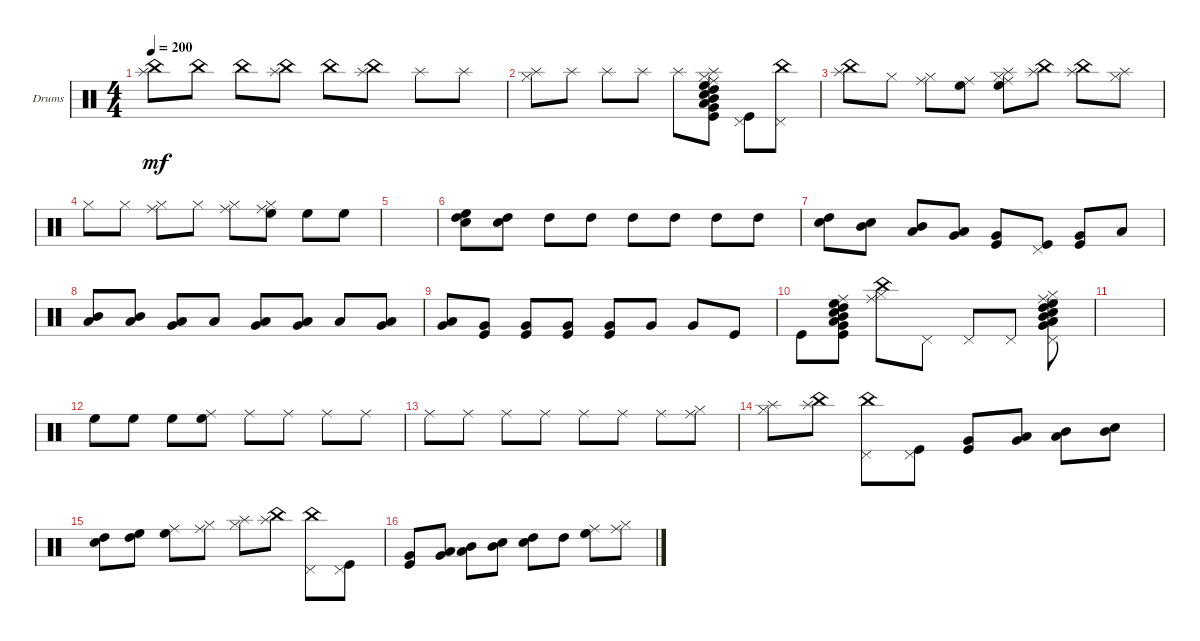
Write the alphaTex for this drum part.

\defaultSystemsLayout 4
\bracketExtendMode groupsimilarinstruments
\firstSystemTrackNameOrientation horizontal
\otherSystemsTrackNameOrientation horizontal
\track ("Drumkit" "Drums") {instrument percussion}
\staff {score}
\articulation defaults
\ts (4 4)
\tempo 200
\clef neutral
\ks c
("Splash (hit)" "China (hit)").8{dy mf} "China (hit)".8 "China (hit)".8 ("China (hit)" "Splash (hit)").8 "China (hit)".8 ("China (hit)" "Splash (hit)").8 "Splash (hit)".8 "Splash (hit)".8 |
("Splash (hit)" "Hi-Hat (closed)").8 "Splash (hit)".8 "Splash (hit)".8 "Splash (hit)".8 "Splash (hit)".8 ("Splash (hit)" "Hi-Hat (closed)" "Ride (middle)" "High Floor Tom (hit)" "High Tom (hit)" "Snare (hit) 2" "Mid Tom (hit)" "Low Tom (hit)" "Very Low Tom (hit)" "Kick (hit)").8 ("Kick (hit)" "Pedal Hi-Hat (hit)").8 ("Pedal Hi-Hat (hit)" "China (hit)").8 |
("China (hit)" "Splash (hit)").8 "Hi-Hat (closed)".8 ("Hi-Hat (closed)" "Ride (middle)").8 ("Ride (middle)" "High Floor Tom (hit)").8 ("High Floor Tom (hit)" "Ride (middle)" "Hi-Hat (closed)" "Splash (hit)").8 ("Splash (hit)" "China (hit)").8 ("China (hit)" "Splash (hit)").8 ("Splash (hit)" "Hi-Hat (closed)").8 |
"Hi-Hat (closed)".8 "Hi-Hat (closed)".8 ("Hi-Hat (closed)" "Ride (middle)").8 "Hi-Hat (closed)".8 ("Hi-Hat (closed)" "Ride (middle)").8 ("Hi-Hat (closed)" "Ride (middle)" "High Floor Tom (hit)").8 "High Floor Tom (hit)".8 "High Floor Tom (hit)".8 |
|
("High Floor Tom (hit)" "High Tom (hit)" "Snare (hit) 2").8 ("High Tom (hit)" "Snare (hit) 2").8 "High Tom (hit)".8 "High Tom (hit)".8 "High Tom (hit)".8 "High Tom (hit)".8 "High Tom (hit)".8 "High Tom (hit)".8 |
("High Tom (hit)" "Snare (hit) 2").8 ("Snare (hit) 2" "Mid Tom (hit)").8 ("Mid Tom (hit)" "Low Tom (hit)").8 ("Low Tom (hit)" "Very Low Tom (hit)").8 ("Very Low Tom (hit)" "Kick (hit)").8 ("Pedal Hi-Hat (hit)" "Kick (hit)").8 ("Kick (hit)" "Very Low Tom (hit)").8 "Low Tom (hit)".8 |
("Low Tom (hit)" "Mid Tom (hit)").8 ("Mid Tom (hit)" "Low Tom (hit)").8 ("Low Tom (hit)" "Very Low Tom (hit)").8 "Low Tom (hit)".8 ("Low Tom (hit)" "Very Low Tom (hit)").8 ("Very Low Tom (hit)" "Low Tom (hit)").8 "Low Tom (hit)".8 ("Very Low Tom (hit)" "Low Tom (hit)").8 |
("Low Tom (hit)" "Very Low Tom (hit)").8 ("Very Low Tom (hit)" "Kick (hit)").8 ("Very Low Tom (hit)" "Kick (hit)").8 ("Kick (hit)" "Very Low Tom (hit)").8 ("Very Low Tom (hit)" "Kick (hit)").8 "Very Low Tom (hit)".8 "Very Low Tom (hit)".8 "Kick (hit)".8 |
"Kick (hit)".8 ("Kick (hit)" "Very Low Tom (hit)" "Low Tom (hit)" "Mid Tom (hit)" "Snare (hit) 2" "High Tom (hit)" "High Floor Tom (hit)" "Ride (middle)").8 ("Ride (middle)" "Hi-Hat (closed)" "China (hit)").8 "Pedal Hi-Hat (hit)".8 "Pedal Hi-Hat (hit)".8 "Pedal Hi-Hat (hit)".8 ("Pedal Hi-Hat (hit)" "Very Low Tom (hit)" "Low Tom (hit)" "Mid Tom (hit)" "Snare (hit) 2" "High Tom (hit)" "High Floor Tom (hit)" "Ride (middle)" "Hi-Hat (closed)").8 |
|
"High Floor Tom (hit)".8 "High Floor Tom (hit)".8 "High Floor Tom (hit)".8 ("High Floor Tom (hit)" "Ride (middle)").8 "Ride (middle)".8 "Ride (middle)".8 "Ride (middle)".8 "Ride (middle)".8 |
"Ride (middle)".8 "Ride (middle)".8 "Ride (middle)".8 "Ride (middle)".8 "Ride (middle)".8 "Ride (middle)".8 "Ride (middle)".8 ("Ride (middle)" "Hi-Hat (closed)").8 |
("Hi-Hat (closed)" "Splash (hit)").8 ("Splash (hit)" "China (hit)").8 ("China (hit)" "Pedal Hi-Hat (hit)").8 ("Pedal Hi-Hat (hit)" "Kick (hit)").8 ("Kick (hit)" "Very Low Tom (hit)").8 ("Very Low Tom (hit)" "Low Tom (hit)").8 ("Low Tom (hit)" "Mid Tom (hit)").8 ("Mid Tom (hit)" "Snare (hit) 2").8 |
("Snare (hit) 2" "High Tom (hit)").8 ("High Tom (hit)" "High Floor Tom (hit)").8 ("High Floor Tom (hit)" "Ride (middle)").8 ("Ride (middle)" "Hi-Hat (closed)").8 ("Hi-Hat (closed)" "Splash (hit)").8 ("Splash (hit)" "China (hit)").8 ("China (hit)" "Pedal Hi-Hat (hit)").8 ("Pedal Hi-Hat (hit)" "Kick (hit)").8 |
("Kick (hit)" "Very Low Tom (hit)").8 ("Very Low Tom (hit)" "Low Tom (hit)").8 ("Low Tom (hit)" "Mid Tom (hit)").8 ("Mid Tom (hit)" "Snare (hit) 2").8 ("Snare (hit) 2" "High Tom (hit)").8 "High Tom (hit)".8 ("High Floor Tom (hit)" "Ride (middle)").8 ("Ride (middle)" "Hi-Hat (closed)").8
